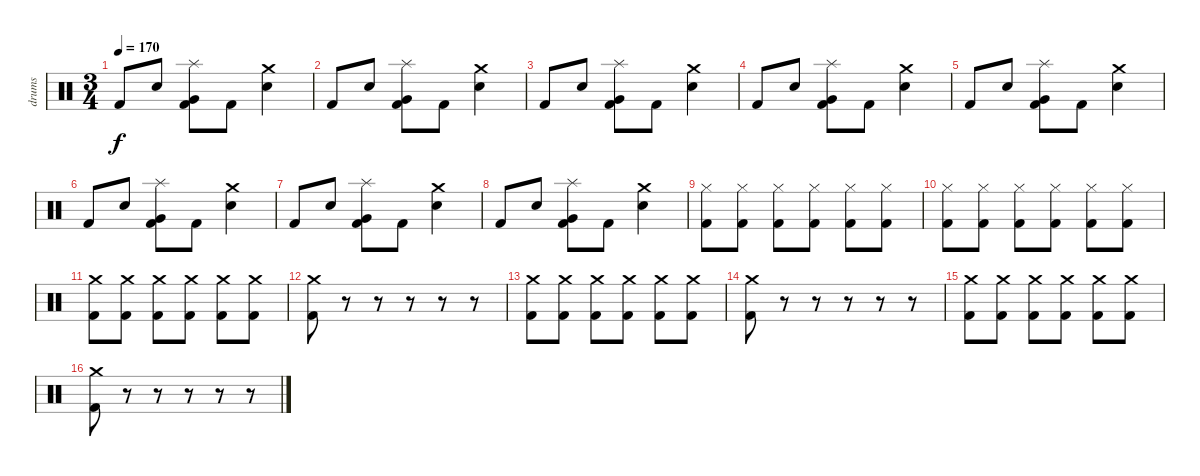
\track ("drums" "drums") {instrument percussion}
\staff {score}
\articulation defaults
\ts (3 4)
\tempo 170
\clef neutral
\ks c "Kick (hit) 2".8{dy f} "Snare (hit) 2".8
("Kick (hit) 2" "Very Low Tom (hit)" "Splash (hit)").8 "Kick (hit) 2".8 ("Snare (hit) 2" "Crash medium (hit)").4 |
"Kick (hit) 2".8 "Snare (hit) 2".8 ("Kick (hit) 2" "Very Low Tom (hit)" "Splash (hit)").8 "Kick (hit) 2".8 ("Snare (hit) 2" "Crash medium (hit)").4 |
"Kick (hit) 2".8 "Snare (hit) 2".8 ("Kick (hit) 2" "Very Low Tom (hit)" "Splash (hit)").8 "Kick (hit) 2".8 ("Snare (hit) 2" "Crash medium (hit)").4 |
"Kick (hit) 2".8 "Snare (hit) 2".8 ("Kick (hit) 2" "Very Low Tom (hit)" "Splash (hit)").8 "Kick (hit) 2".8 ("Snare (hit) 2" "Crash medium (hit)").4 |
"Kick (hit) 2".8 "Snare (hit) 2".8 ("Kick (hit) 2" "Very Low Tom (hit)" "Splash (hit)").8 "Kick (hit) 2".8 ("Snare (hit) 2" "Crash medium (hit)").4 |
"Kick (hit) 2".8 "Snare (hit) 2".8 ("Kick (hit) 2" "Very Low Tom (hit)" "Splash (hit)").8 "Kick (hit) 2".8 ("Snare (hit) 2" "Crash medium (hit)").4 |
"Kick (hit) 2".8 "Snare (hit) 2".8 ("Kick (hit) 2" "Very Low Tom (hit)" "Splash (hit)").8 "Kick (hit) 2".8 ("Snare (hit) 2" "Crash medium (hit)").4 |
"Kick (hit) 2".8 "Snare (hit) 2".8 ("Kick (hit) 2" "Very Low Tom (hit)" "Splash (hit)").8 "Kick (hit) 2".8 ("Snare (hit) 2" "Crash medium (hit)").4 |
("Kick (hit) 2" "Hi-Hat (closed)").8 ("Kick (hit) 2" "Hi-Hat (closed)").8 ("Kick (hit) 2" "Hi-Hat (closed)").8 ("Kick (hit) 2" "Hi-Hat (closed)").8 ("Kick (hit) 2" "Hi-Hat (closed)").8 ("Kick (hit) 2" "Hi-Hat (closed)").8 |
("Kick (hit) 2" "Hi-Hat (closed)").8 ("Kick (hit) 2" "Hi-Hat (closed)").8 ("Kick (hit) 2" "Hi-Hat (closed)").8 ("Kick (hit) 2" "Hi-Hat (closed)").8 ("Kick (hit) 2" "Hi-Hat (closed)").8 ("Kick (hit) 2" "Hi-Hat (closed)").8 |
("Kick (hit) 2" "Crash medium (hit)").8 ("Kick (hit) 2" "Crash medium (hit)").8 ("Kick (hit) 2" "Crash medium (hit)").8 ("Kick (hit) 2" "Crash medium (hit)").8 ("Kick (hit) 2" "Crash medium (hit)").8 ("Kick (hit) 2" "Crash medium (hit)").8 |
("Kick (hit) 2" "Crash medium (hit)").8 r.8 r.8 r.8 r.8 r.8 |
("Kick (hit) 2" "Crash medium (hit)").8 ("Kick (hit) 2" "Crash medium (hit)").8 ("Kick (hit) 2" "Crash medium (hit)").8 ("Kick (hit) 2" "Crash medium (hit)").8 ("Kick (hit) 2" "Crash medium (hit)").8 ("Kick (hit) 2" "Crash medium (hit)").8 |
("Kick (hit) 2" "Crash medium (hit)").8 r.8 r.8 r.8 r.8 r.8 |
("Kick (hit) 2" "Crash medium (hit)").8 ("Kick (hit) 2" "Crash medium (hit)").8 ("Kick (hit) 2" "Crash medium (hit)").8 ("Kick (hit) 2" "Crash medium (hit)").8 ("Kick (hit) 2" "Crash medium (hit)").8 ("Kick (hit) 2" "Crash medium (hit)").8 |
("Kick (hit) 2" "Crash medium (hit)").8 r.8 r.8 r.8 r.8 r.8
